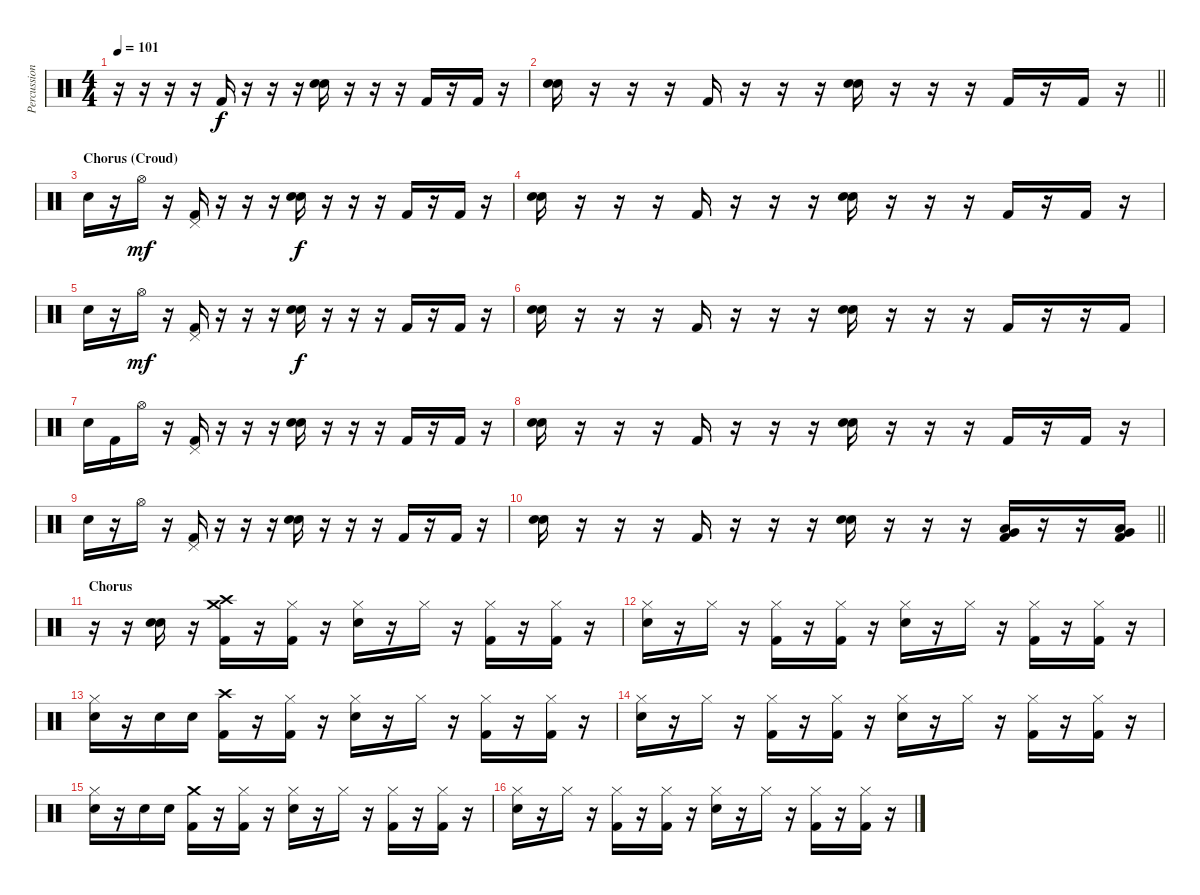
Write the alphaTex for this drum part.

\track ("Percussion (Chris)" "Percussion") {instrument percussion}
\staff {score}
\articulation defaults
\ts (4 4)
\tempo 101
\clef neutral
\ks c
r.16{dy mp} r.16 r.16 r.16 "Kick (hit) 2".16{dy f} r.16 r.16 r.16 ("Snare (hit) 2" "Snare (hit) 2").16 r.16 r.16 r.16 "Kick (hit) 2".16 r.16 "Kick (hit) 2".16 r.16 |
\barLineRight lightlight
("Snare (hit) 2" "Snare (hit) 2").16 r.16 r.16 r.16 "Kick (hit) 2".16 r.16 r.16 r.16 ("Snare (hit) 2" "Snare (hit) 2").16 r.16 r.16 r.16 "Kick (hit) 2".16 r.16 "Kick (hit) 2".16 r.16 |
\section ("" "Chorus (Croud)")
"Snare (hit) 2".16 r.16 "Hi-Hat (open)".16{dy mf} r.16 ("Pedal Hi-Hat (hit)" "Kick (hit) 2").16 r.16 r.16 r.16 ("Snare (hit) 2" "Snare (hit) 2").16{dy f} r.16 r.16 r.16 "Kick (hit) 2".16 r.16 "Kick (hit) 2".16 r.16 |
("Snare (hit) 2" "Snare (hit) 2").16 r.16 r.16 r.16 "Kick (hit) 2".16 r.16 r.16 r.16 ("Snare (hit) 2" "Snare (hit) 2").16 r.16 r.16 r.16 "Kick (hit) 2".16 r.16 "Kick (hit) 2".16 r.16 |
"Snare (hit) 2".16 r.16 "Hi-Hat (open)".16{dy mf} r.16 ("Pedal Hi-Hat (hit)" "Kick (hit) 2").16 r.16 r.16 r.16 ("Snare (hit) 2" "Snare (hit) 2").16{dy f} r.16 r.16 r.16 "Kick (hit) 2".16 r.16 "Kick (hit) 2".16 r.16 |
("Snare (hit) 2" "Snare (hit) 2").16 r.16 r.16 r.16 "Kick (hit) 2".16 r.16 r.16 r.16 ("Snare (hit) 2" "Snare (hit) 2").16 r.16 r.16 r.16 "Kick (hit) 2".16 r.16 r.16 "Kick (hit) 2".16 |
"Snare (hit) 2".16 "Kick (hit) 2".16 "Hi-Hat (open)".16 r.16 ("Pedal Hi-Hat (hit)" "Kick (hit) 2").16 r.16 r.16 r.16 ("Snare (hit) 2" "Snare (hit) 2").16 r.16 r.16 r.16 "Kick (hit) 2".16 r.16 "Kick (hit) 2".16 r.16 |
("Snare (hit) 2" "Snare (hit) 2").16 r.16 r.16 r.16 "Kick (hit) 2".16 r.16 r.16 r.16 ("Snare (hit) 2" "Snare (hit) 2").16 r.16 r.16 r.16 "Kick (hit) 2".16 r.16 "Kick (hit) 2".16 r.16 |
"Snare (hit) 2".16 r.16 "Hi-Hat (open)".16 r.16 ("Pedal Hi-Hat (hit)" "Kick (hit) 2").16 r.16 r.16 r.16 ("Snare (hit) 2" "Snare (hit) 2").16 r.16 r.16 r.16 "Kick (hit) 2".16 r.16 "Kick (hit) 2".16 r.16 |
\barLineRight lightlight
("Snare (hit) 2" "Snare (hit) 2").16 r.16 r.16 r.16 "Kick (hit) 2".16 r.16 r.16 r.16 ("Snare (hit) 2" "Snare (hit) 2").16 r.16 r.16 r.16 ("Low Tom (hit)" "Very Low Tom (hit)" "Kick (hit) 2").16 r.16 r.16 ("Low Tom (hit)" "Very Low Tom (hit)" "Kick (hit) 2").16 |
\section ("" "Chorus")
r.16 r.16 ("Snare (hit) 2" "Snare (hit) 2").16 r.16 ("Crash medium (hit)" "Crash high (hit)" "Kick (hit) 2").16 r.16 ("Hi-Hat (closed)" "Kick (hit) 2").16 r.16 ("Hi-Hat (closed)" "Snare (hit) 2").16 r.16 "Hi-Hat (closed)".16 r.16 ("Hi-Hat (closed)" "Kick (hit) 2").16 r.16 ("Hi-Hat (closed)" "Kick (hit) 2").16 r.16 |
("Hi-Hat (closed)" "Snare (hit) 2").16 r.16 "Hi-Hat (closed)".16 r.16 ("Hi-Hat (closed)" "Kick (hit) 2").16 r.16 ("Hi-Hat (closed)" "Kick (hit) 2").16 r.16 ("Hi-Hat (closed)" "Snare (hit) 2").16 r.16 "Hi-Hat (closed)".16 r.16 ("Hi-Hat (closed)" "Kick (hit) 2").16 r.16 ("Hi-Hat (closed)" "Kick (hit) 2").16 r.16 |
("Hi-Hat (closed)" "Snare (hit) 2").16 r.16 "Snare (hit) 2".16 "Snare (hit) 2".16 ("Crash high (hit)" "Kick (hit) 2").16 r.16 ("Hi-Hat (closed)" "Kick (hit) 2").16 r.16 ("Hi-Hat (closed)" "Snare (hit) 2").16 r.16 "Hi-Hat (closed)".16 r.16 ("Hi-Hat (closed)" "Kick (hit) 2").16 r.16 ("Hi-Hat (closed)" "Kick (hit) 2").16 r.16 |
("Hi-Hat (closed)" "Snare (hit) 2").16 r.16 "Hi-Hat (closed)".16 r.16 ("Hi-Hat (closed)" "Kick (hit) 2").16 r.16 ("Hi-Hat (closed)" "Kick (hit) 2").16 r.16 ("Hi-Hat (closed)" "Snare (hit) 2").16 r.16 "Hi-Hat (closed)".16 r.16 ("Hi-Hat (closed)" "Kick (hit) 2").16 r.16 ("Hi-Hat (closed)" "Kick (hit) 2").16 r.16 |
("Hi-Hat (closed)" "Snare (hit) 2").16 r.16 "Snare (hit) 2".16 "Snare (hit) 2".16 ("Crash medium (hit)" "Kick (hit) 2").16 r.16 ("Hi-Hat (closed)" "Kick (hit) 2").16 r.16 ("Hi-Hat (closed)" "Snare (hit) 2").16 r.16 "Hi-Hat (closed)".16 r.16 ("Hi-Hat (closed)" "Kick (hit) 2").16 r.16 ("Hi-Hat (closed)" "Kick (hit) 2").16 r.16 |
("Hi-Hat (closed)" "Snare (hit) 2").16 r.16 "Hi-Hat (closed)".16 r.16 ("Hi-Hat (closed)" "Kick (hit) 2").16 r.16 ("Hi-Hat (closed)" "Kick (hit) 2").16 r.16 ("Hi-Hat (closed)" "Snare (hit) 2").16 r.16 "Hi-Hat (closed)".16 r.16 ("Hi-Hat (closed)" "Kick (hit) 2").16 r.16 ("Hi-Hat (closed)" "Kick (hit) 2").16 r.16
